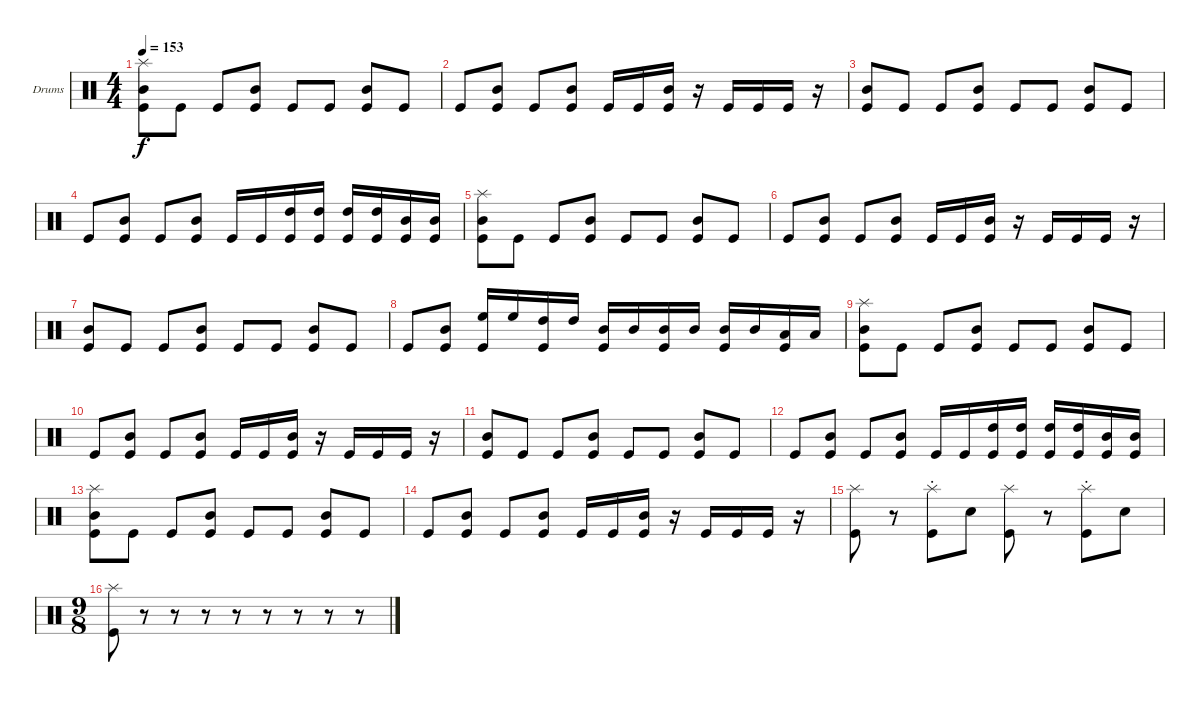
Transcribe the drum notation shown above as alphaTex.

\bracketExtendMode groupsimilarinstruments
\firstSystemTrackNameOrientation horizontal
\otherSystemsTrackNameOrientation horizontal
\track ("Drumkit" "Drums") {instrument percussion}
\staff {score}
\articulation defaults
\ts (4 4)
\tempo 153
\clef neutral
\ks c
("Kick (hit)" "Mid Tom (hit)" "Splash (hit)").8{dy f} "Kick (hit)".8 "Kick (hit)".8 ("Kick (hit)" "Mid Tom (hit)").8 "Kick (hit)".8 "Kick (hit)".8 ("Kick (hit)" "Mid Tom (hit)").8 "Kick (hit)".8 |
"Kick (hit)".8 ("Kick (hit)" "Mid Tom (hit)").8 "Kick (hit)".8 ("Kick (hit)" "Mid Tom (hit)").8 "Kick (hit)".16 "Kick (hit)".16 ("Kick (hit)" "Mid Tom (hit)").16 r.16 "Kick (hit)".16 "Kick (hit)".16 "Kick (hit)".16 r.16 |
("Kick (hit)" "Mid Tom (hit)").8 "Kick (hit)".8 "Kick (hit)".8 ("Kick (hit)" "Mid Tom (hit)").8 "Kick (hit)".8 "Kick (hit)".8 ("Kick (hit)" "Mid Tom (hit)").8 "Kick (hit)".8 |
"Kick (hit)".8 ("Kick (hit)" "Mid Tom (hit)").8 "Kick (hit)".8 ("Kick (hit)" "Mid Tom (hit)").8 "Kick (hit)".16 "Kick (hit)".16 ("Kick (hit)" "High Tom (hit)").16 ("Kick (hit)" "High Tom (hit)").16 ("Kick (hit)" "High Tom (hit)").16 ("Kick (hit)" "High Tom (hit)").16 ("Kick (hit)" "Mid Tom (hit)").16 ("Kick (hit)" "Mid Tom (hit)").16 |
("Kick (hit)" "Mid Tom (hit)" "Splash (hit)").8 "Kick (hit)".8 "Kick (hit)".8 ("Kick (hit)" "Mid Tom (hit)").8 "Kick (hit)".8 "Kick (hit)".8 ("Kick (hit)" "Mid Tom (hit)").8 "Kick (hit)".8 |
"Kick (hit)".8 ("Kick (hit)" "Mid Tom (hit)").8 "Kick (hit)".8 ("Kick (hit)" "Mid Tom (hit)").8 "Kick (hit)".16 "Kick (hit)".16 ("Kick (hit)" "Mid Tom (hit)").16 r.16 "Kick (hit)".16 "Kick (hit)".16 "Kick (hit)".16 r.16 |
("Kick (hit)" "Mid Tom (hit)").8 "Kick (hit)".8 "Kick (hit)".8 ("Kick (hit)" "Mid Tom (hit)").8 "Kick (hit)".8 "Kick (hit)".8 ("Kick (hit)" "Mid Tom (hit)").8 "Kick (hit)".8 |
"Kick (hit)".8 ("Kick (hit)" "Mid Tom (hit)").8 ("High Floor Tom (hit)" "Kick (hit)").16 "High Floor Tom (hit)".16 ("High Tom (hit)" "Kick (hit)").16 "High Tom (hit)".16 ("Mid Tom (hit)" "Kick (hit)").16 "Mid Tom (hit)".16 ("Mid Tom (hit)" "Kick (hit)").16 "Mid Tom (hit)".16 ("Mid Tom (hit)" "Kick (hit)").16 "Mid Tom (hit)".16 ("Low Tom (hit)" "Kick (hit)").16 "Low Tom (hit)".16 |
("Kick (hit)" "Mid Tom (hit)" "Splash (hit)").8 "Kick (hit)".8 "Kick (hit)".8 ("Kick (hit)" "Mid Tom (hit)").8 "Kick (hit)".8 "Kick (hit)".8 ("Kick (hit)" "Mid Tom (hit)").8 "Kick (hit)".8 |
"Kick (hit)".8 ("Kick (hit)" "Mid Tom (hit)").8 "Kick (hit)".8 ("Kick (hit)" "Mid Tom (hit)").8 "Kick (hit)".16 "Kick (hit)".16 ("Kick (hit)" "Mid Tom (hit)").16 r.16 "Kick (hit)".16 "Kick (hit)".16 "Kick (hit)".16 r.16 |
("Kick (hit)" "Mid Tom (hit)").8 "Kick (hit)".8 "Kick (hit)".8 ("Kick (hit)" "Mid Tom (hit)").8 "Kick (hit)".8 "Kick (hit)".8 ("Kick (hit)" "Mid Tom (hit)").8 "Kick (hit)".8 |
"Kick (hit)".8 ("Kick (hit)" "Mid Tom (hit)").8 "Kick (hit)".8 ("Kick (hit)" "Mid Tom (hit)").8 "Kick (hit)".16 "Kick (hit)".16 ("Kick (hit)" "High Tom (hit)").16 ("Kick (hit)" "High Tom (hit)").16 ("Kick (hit)" "High Tom (hit)").16 ("Kick (hit)" "High Tom (hit)").16 ("Kick (hit)" "Mid Tom (hit)").16 ("Kick (hit)" "Mid Tom (hit)").16 |
\scale
0.327306 ("Kick (hit)" "Mid Tom (hit)" "Splash (hit)").8 "Kick (hit)".8 "Kick (hit)".8 ("Kick (hit)" "Mid Tom (hit)").8 "Kick (hit)".8 "Kick (hit)".8 ("Kick (hit)" "Mid Tom (hit)").8 "Kick (hit)".8 |
\scale
0.383363 "Kick (hit)".8 ("Kick (hit)" "Mid Tom (hit)").8 "Kick (hit)".8 ("Kick (hit)" "Mid Tom (hit)").8 "Kick (hit)".16 "Kick (hit)".16 ("Kick (hit)" "Mid Tom (hit)").16 r.16 "Kick (hit)".16 "Kick (hit)".16 "Kick (hit)".16 r.16 |
\scale
0.289331 ("Kick (hit)" "Splash (hit)").8 r.8 ("Kick (hit)" "Splash (hit)"{st}).8 "Snare (hit) 2".8 ("Kick (hit)" "Splash (hit)").8 r.8 ("Kick (hit)" "Splash (hit)"{st}).8 "Snare (hit) 2".8 |
\ts (9 8)
("Kick (hit)" "Splash (hit)").8 r.8 r.8 r.8 r.8 r.8 r.8 r.8 r.8
